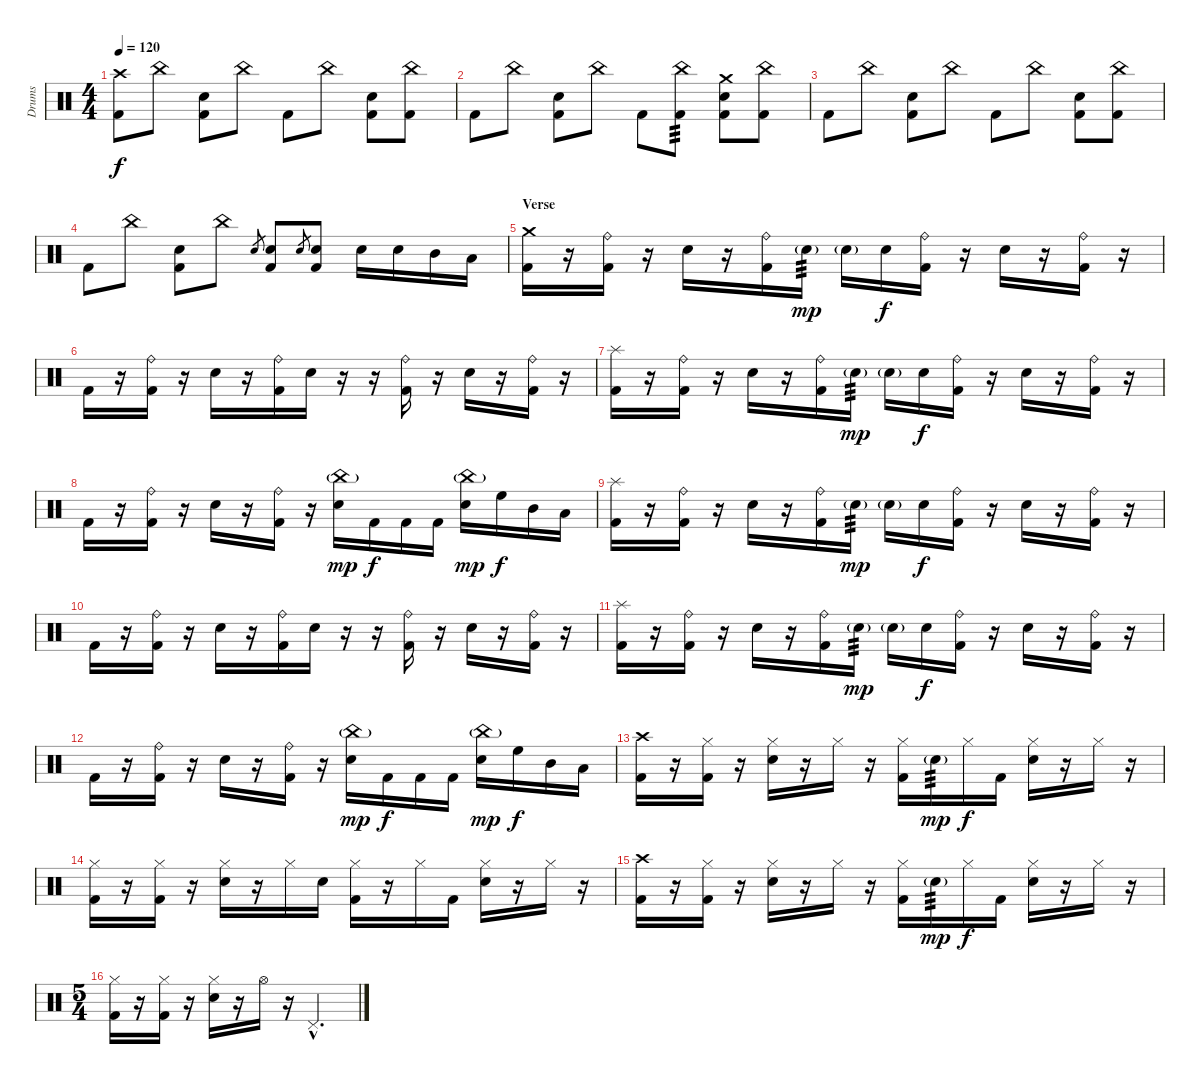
\track ("Drums" "Drums") {instrument percussion}
\staff {score}
\articulation defaults
\ts (4 4)
\section ("" "")
\tempo 120
\clef neutral
\ks c
("Crash high (hit)" "Kick (hit) 2").8{dy f} "China (hit)".8 ("Electric Snare (hit)" "Kick (hit) 2").8 "China (hit)".8 "Kick (hit) 2".8 "China (hit)".8 ("Electric Snare (hit)" "Kick (hit) 2").8 ("China (hit)" "Kick (hit) 2").8 |
"Kick (hit) 2".8 "China (hit)".8 ("Electric Snare (hit)" "Kick (hit) 2").8 "China (hit)".8 "Kick (hit) 2".8 ("China (hit)" "Kick (hit) 2").8{tp 3} ("Crash medium (hit)" "Electric Snare (hit)" "Kick (hit) 2").8 ("China (hit)" "Kick (hit) 2").8 |
"Kick (hit) 2".8 "China (hit)".8 ("Electric Snare (hit)" "Kick (hit) 2").8 "China (hit)".8 "Kick (hit) 2".8 "China (hit)".8 ("Electric Snare (hit)" "Kick (hit) 2").8 ("China (hit)" "Kick (hit) 2").8 |
"Kick (hit) 2".8 "China (hit)".8 ("Electric Snare (hit)" "Kick (hit) 2").8 "China (hit)".8 "Electric Snare (hit)".8{gr} ("Electric Snare (hit)" "Kick (hit) 2").8 "Electric Snare (hit)".8{gr} ("Electric Snare (hit)" "Kick (hit) 2").8 "Electric Snare (hit)".16 "Electric Snare (hit)".16 "Mid Tom (hit)".16 "Low Tom (hit)".16 |
\section ("" "Verse")
("Crash medium (hit)" "Kick (hit) 2").16 r.16 ("Ride (bell)" "Kick (hit) 2").16 r.16 "Electric Snare (hit)".16 r.16 ("Ride (bell)" "Kick (hit) 2").16 "Electric Snare (hit)"{g}.16{tp 3 dy mp} "Electric Snare (hit)"{g}.16 "Electric Snare (hit)".16{dy f} ("Ride (bell)" "Kick (hit) 2").16 r.16 "Electric Snare (hit)".16 r.16 ("Ride (bell)" "Kick (hit) 2").16 r.16 |
"Kick (hit) 2".16 r.16 ("Ride (bell)" "Kick (hit) 2").16 r.16 "Electric Snare (hit)".16 r.16 ("Ride (bell)" "Kick (hit) 2").16 "Electric Snare (hit)".16 r.16 r.16 ("Ride (bell)" "Kick (hit) 2").16 r.16 "Electric Snare (hit)".16 r.16 ("Ride (bell)" "Kick (hit) 2").16 r.16 |
("Splash (hit)" "Kick (hit) 2").16 r.16 ("Ride (bell)" "Kick (hit) 2").16 r.16 "Electric Snare (hit)".16 r.16 ("Ride (bell)" "Kick (hit) 2").16 "Electric Snare (hit)"{g}.16{tp 3 dy mp} "Electric Snare (hit)"{g}.16 "Electric Snare (hit)".16{dy f} ("Ride (bell)" "Kick (hit) 2").16 r.16 "Electric Snare (hit)".16 r.16 ("Ride (bell)" "Kick (hit) 2").16 r.16 |
"Kick (hit) 2".16 r.16 ("Ride (bell)" "Kick (hit) 2").16 r.16 "Electric Snare (hit)".16 r.16 ("Ride (bell)" "Kick (hit) 2").16 r.16 ("China (hit)"{g} "Electric Snare (hit)").16{dy mp} "Kick (hit) 2".16{dy f} "Kick (hit) 2".16 "Kick (hit) 2".16 ("China (hit)"{g} "Electric Snare (hit)").16{dy mp} "High Floor Tom (hit)".16{dy f} "Mid Tom (hit)".16 "Low Tom (hit)".16 |
("Splash (hit)" "Kick (hit) 2").16 r.16 ("Ride (bell)" "Kick (hit) 2").16 r.16 "Electric Snare (hit)".16 r.16 ("Ride (bell)" "Kick (hit) 2").16 "Electric Snare (hit)"{g}.16{tp 3 dy mp} "Electric Snare (hit)"{g}.16 "Electric Snare (hit)".16{dy f} ("Ride (bell)" "Kick (hit) 2").16 r.16 "Electric Snare (hit)".16 r.16 ("Ride (bell)" "Kick (hit) 2").16 r.16 |
"Kick (hit) 2".16 r.16 ("Ride (bell)" "Kick (hit) 2").16 r.16 "Electric Snare (hit)".16 r.16 ("Ride (bell)" "Kick (hit) 2").16 "Electric Snare (hit)".16 r.16 r.16 ("Ride (bell)" "Kick (hit) 2").16 r.16 "Electric Snare (hit)".16 r.16 ("Ride (bell)" "Kick (hit) 2").16 r.16 |
("Splash (hit)" "Kick (hit) 2").16 r.16 ("Ride (bell)" "Kick (hit) 2").16 r.16 "Electric Snare (hit)".16 r.16 ("Ride (bell)" "Kick (hit) 2").16 "Electric Snare (hit)"{g}.16{tp 3 dy mp} "Electric Snare (hit)"{g}.16 "Electric Snare (hit)".16{dy f} ("Ride (bell)" "Kick (hit) 2").16 r.16 "Electric Snare (hit)".16 r.16 ("Ride (bell)" "Kick (hit) 2").16 r.16 |
"Kick (hit) 2".16 r.16 ("Ride (bell)" "Kick (hit) 2").16 r.16 "Electric Snare (hit)".16 r.16 ("Ride (bell)" "Kick (hit) 2").16 r.16 ("China (hit)"{g} "Electric Snare (hit)").16{dy mp} "Kick (hit) 2".16{dy f} "Kick (hit) 2".16 "Kick (hit) 2".16 ("China (hit)"{g} "Electric Snare (hit)").16{dy mp} "High Floor Tom (hit)".16{dy f} "Mid Tom (hit)".16 "Low Tom (hit)".16 |
("Crash high (hit)" "Kick (hit) 2").16 r.16 ("Hi-Hat (closed)" "Kick (hit) 2").16 r.16 ("Hi-Hat (closed)" "Electric Snare (hit)").16 r.16 "Hi-Hat (closed)".16 r.16 ("Hi-Hat (closed)" "Kick (hit) 2").16 "Electric Snare (hit)"{g}.16{tp 3 dy mp} "Hi-Hat (closed)".16{dy f} "Kick (hit) 2".16 ("Hi-Hat (closed)" "Electric Snare (hit)").16 r.16 "Hi-Hat (closed)".16 r.16 |
("Hi-Hat (closed)" "Kick (hit) 2").16 r.16 ("Hi-Hat (closed)" "Kick (hit) 2").16 r.16 ("Hi-Hat (closed)" "Electric Snare (hit)").16 r.16 "Hi-Hat (closed)".16 "Electric Snare (hit)".16 ("Hi-Hat (closed)" "Kick (hit) 2").16 r.16 "Hi-Hat (closed)".16 "Kick (hit) 2".16 ("Hi-Hat (closed)" "Electric Snare (hit)").16 r.16 "Hi-Hat (closed)".16 r.16 |
("Crash high (hit)" "Kick (hit) 2").16 r.16 ("Hi-Hat (closed)" "Kick (hit) 2").16 r.16 ("Hi-Hat (closed)" "Electric Snare (hit)").16 r.16 "Hi-Hat (closed)".16 r.16 ("Hi-Hat (closed)" "Kick (hit) 2").16 "Electric Snare (hit)"{g}.16{tp 3 dy mp} "Hi-Hat (closed)".16{dy f} "Kick (hit) 2".16 ("Hi-Hat (closed)" "Electric Snare (hit)").16 r.16 "Hi-Hat (closed)".16 r.16 |
\ts (5 4)
("Hi-Hat (closed)" "Kick (hit) 2").16 r.16 ("Hi-Hat (closed)" "Kick (hit) 2").16 r.16 ("Hi-Hat (closed)" "Electric Snare (hit)").16 r.16 "Hi-Hat (open)".16 r.16 "Pedal Hi-Hat (hit)"{hac}.2{d}
